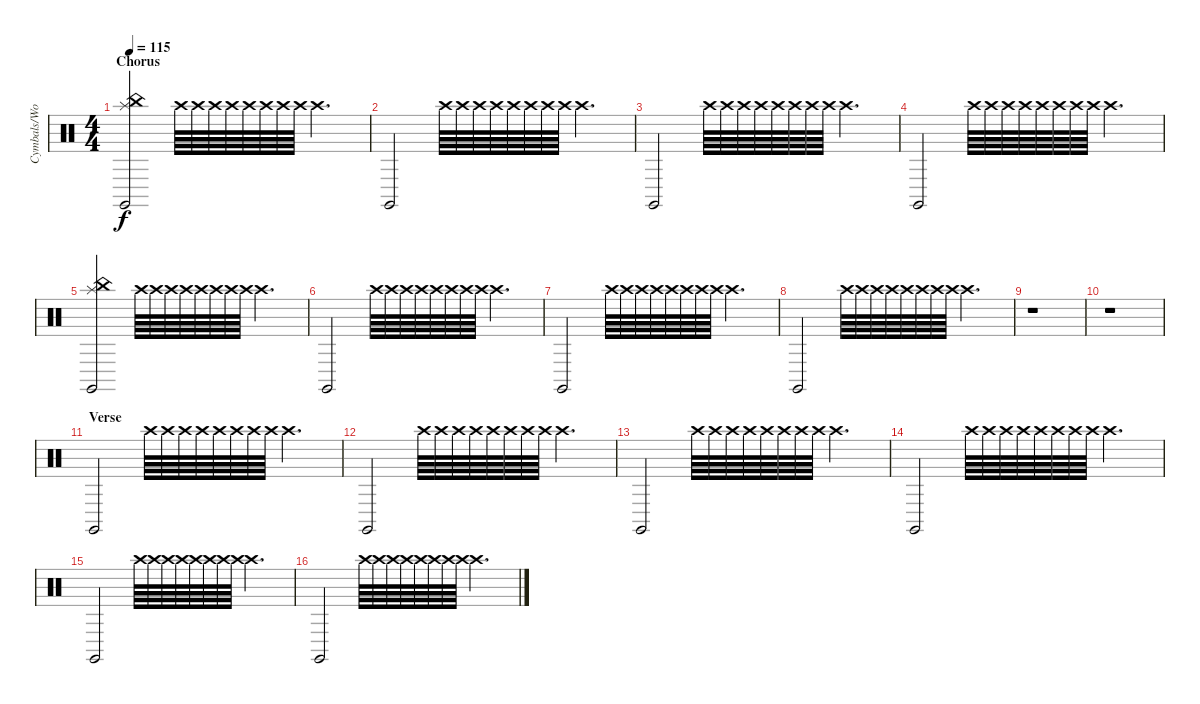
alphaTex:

\track ("Cymbals/Woodblock" "Cymbals/Wo") {instrument percussion}
\staff {score}
\articulation defaults
\ts (4 4)
\section ("" "Chorus")
\tempo 115
\clef neutral
\ks c
("Splash (hit)" "China (hit)" "Claves (hit)").2{dy f} "Crash high (hit)".64 "Crash high (hit)".64 "Crash high (hit)".64 "Crash high (hit)".64 "Crash high (hit)".64 "Crash high (hit)".64 "Crash high (hit)".64 "Crash high (hit)".64 "Crash high (hit)".4{d} |
"Claves (hit)".2 "Crash high (hit)".64 "Crash high (hit)".64 "Crash high (hit)".64 "Crash high (hit)".64 "Crash high (hit)".64 "Crash high (hit)".64 "Crash high (hit)".64 "Crash high (hit)".64 "Crash high (hit)".4{d} |
"Claves (hit)".2 "Crash high (hit)".64 "Crash high (hit)".64 "Crash high (hit)".64 "Crash high (hit)".64 "Crash high (hit)".64 "Crash high (hit)".64 "Crash high (hit)".64 "Crash high (hit)".64 "Crash high (hit)".4{d} |
"Claves (hit)".2 "Crash high (hit)".64 "Crash high (hit)".64 "Crash high (hit)".64 "Crash high (hit)".64 "Crash high (hit)".64 "Crash high (hit)".64 "Crash high (hit)".64 "Crash high (hit)".64 "Crash high (hit)".4{d} |
("Splash (hit)" "China (hit)" "Claves (hit)").2 "Crash high (hit)".64 "Crash high (hit)".64 "Crash high (hit)".64 "Crash high (hit)".64 "Crash high (hit)".64 "Crash high (hit)".64 "Crash high (hit)".64 "Crash high (hit)".64 "Crash high (hit)".4{d} |
"Claves (hit)".2 "Crash high (hit)".64 "Crash high (hit)".64 "Crash high (hit)".64 "Crash high (hit)".64 "Crash high (hit)".64 "Crash high (hit)".64 "Crash high (hit)".64 "Crash high (hit)".64 "Crash high (hit)".4{d} |
"Claves (hit)".2 "Crash high (hit)".64 "Crash high (hit)".64 "Crash high (hit)".64 "Crash high (hit)".64 "Crash high (hit)".64 "Crash high (hit)".64 "Crash high (hit)".64 "Crash high (hit)".64 "Crash high (hit)".4{d} |
"Claves (hit)".2 "Crash high (hit)".64 "Crash high (hit)".64 "Crash high (hit)".64 "Crash high (hit)".64 "Crash high (hit)".64 "Crash high (hit)".64 "Crash high (hit)".64 "Crash high (hit)".64 "Crash high (hit)".4{d} |
r.1 |
r.1 |
\section ("" "Verse")
"Claves (hit)".2 "Crash high (hit)".64 "Crash high (hit)".64 "Crash high (hit)".64 "Crash high (hit)".64 "Crash high (hit)".64 "Crash high (hit)".64 "Crash high (hit)".64 "Crash high (hit)".64 "Crash high (hit)".4{d} |
"Claves (hit)".2 "Crash high (hit)".64 "Crash high (hit)".64 "Crash high (hit)".64 "Crash high (hit)".64 "Crash high (hit)".64 "Crash high (hit)".64 "Crash high (hit)".64 "Crash high (hit)".64 "Crash high (hit)".4{d} |
"Claves (hit)".2 "Crash high (hit)".64 "Crash high (hit)".64 "Crash high (hit)".64 "Crash high (hit)".64 "Crash high (hit)".64 "Crash high (hit)".64 "Crash high (hit)".64 "Crash high (hit)".64 "Crash high (hit)".4{d} |
"Claves (hit)".2 "Crash high (hit)".64 "Crash high (hit)".64 "Crash high (hit)".64 "Crash high (hit)".64 "Crash high (hit)".64 "Crash high (hit)".64 "Crash high (hit)".64 "Crash high (hit)".64 "Crash high (hit)".4{d} |
"Claves (hit)".2 "Crash high (hit)".64 "Crash high (hit)".64 "Crash high (hit)".64 "Crash high (hit)".64 "Crash high (hit)".64 "Crash high (hit)".64 "Crash high (hit)".64 "Crash high (hit)".64 "Crash high (hit)".4{d} |
"Claves (hit)".2 "Crash high (hit)".64 "Crash high (hit)".64 "Crash high (hit)".64 "Crash high (hit)".64 "Crash high (hit)".64 "Crash high (hit)".64 "Crash high (hit)".64 "Crash high (hit)".64 "Crash high (hit)".4{d}
